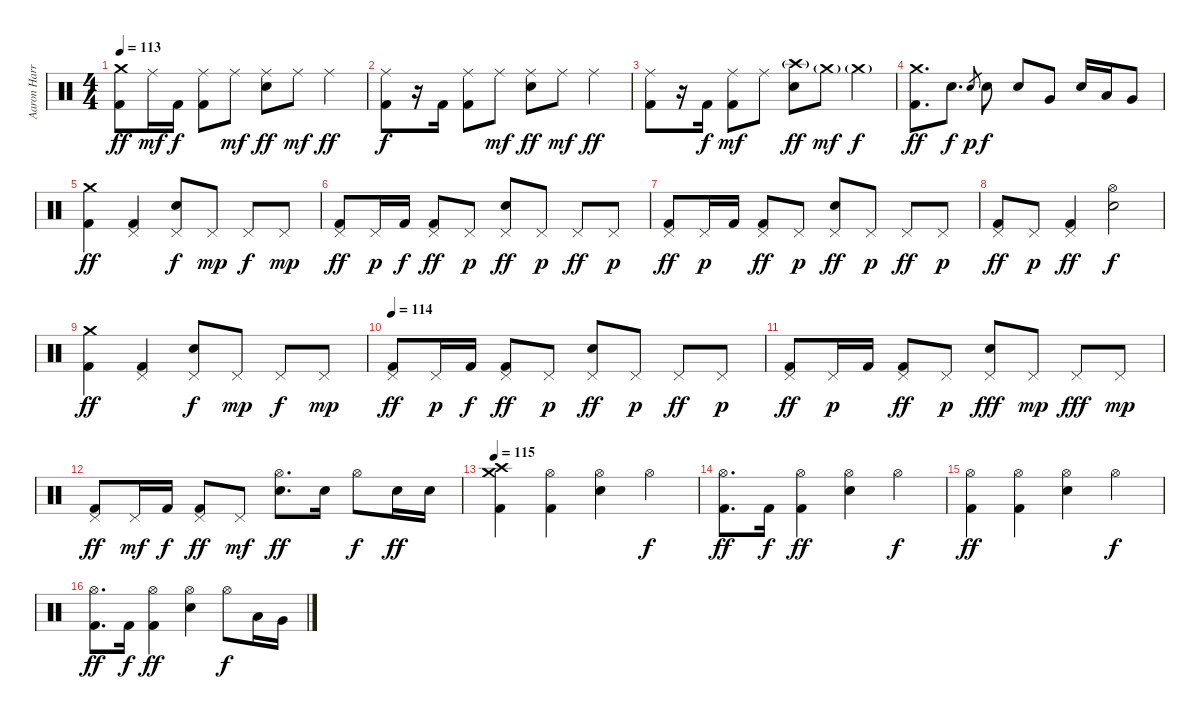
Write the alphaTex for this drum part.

\track ("Aaron Harris" "Aaron Harr") {instrument percussion}
\staff {score}
\articulation defaults
\ts (4 4)
\tempo 113
\clef neutral
\ks c
("Crash medium (hit)" "Kick (hit) 2").8{dy ff} "Ride (middle)".16{dy mf} "Kick (hit) 2".16{dy f} ("Ride (middle)" "Kick (hit) 2").8 "Ride (middle)".8{dy mf} ("Ride (middle)" "Electric Snare (hit)").8{dy ff} "Ride (middle)".8{dy mf} "Ride (middle)".4{dy ff} |
("Ride (middle)" "Kick (hit) 2").8{dy f} r.16 "Kick (hit) 2".16 ("Ride (middle)" "Kick (hit) 2").8 "Ride (middle)".8{dy mf} ("Ride (middle)" "Electric Snare (hit)").8{dy ff} "Ride (middle)".8{dy mf} "Ride (middle)".4{dy ff} |
("Ride (middle)" "Kick (hit) 2").8 r.16 "Kick (hit) 2".16{dy f} ("Ride (middle)" "Kick (hit) 2").8{dy mf} "Ride (middle)".8 ("Crash high (hit)"{g} "Electric Snare (hit)").8{dy ff} "Crash medium (hit)"{g}.8{dy mf} "Crash medium (hit)"{g}.4{dy f} |
("Crash medium (hit)" "Kick (hit) 2").8{d dy ff} "Electric Snare (hit)".8{d dy f} "Electric Snare (hit)".8{gr dy p} "Electric Snare (hit)".8{dy f} "Electric Snare (hit)".8 "Very Low Tom (hit)".8 "Electric Snare (hit)".16 "Low Tom (hit)".16 "Very Low Tom (hit)".8 |
("Crash medium (hit)" "Kick (hit) 2").4{dy ff} ("Pedal Hi-Hat (hit)" "Kick (hit) 2").4 ("Pedal Hi-Hat (hit)" "Electric Snare (hit)").8{dy f} "Pedal Hi-Hat (hit)".8{dy mp} "Pedal Hi-Hat (hit)".8{dy f} "Pedal Hi-Hat (hit)".8{dy mp} |
("Pedal Hi-Hat (hit)" "Kick (hit) 2").8{dy ff} "Pedal Hi-Hat (hit)".16{dy p} "Kick (hit) 2".16{dy f} ("Pedal Hi-Hat (hit)" "Kick (hit) 2").8{dy ff} "Pedal Hi-Hat (hit)".8{dy p} ("Pedal Hi-Hat (hit)" "Electric Snare (hit)").8{dy ff} "Pedal Hi-Hat (hit)".8{dy p} "Pedal Hi-Hat (hit)".8{dy ff} "Pedal Hi-Hat (hit)".8{dy p} |
("Pedal Hi-Hat (hit)" "Kick (hit) 2").8{dy ff} "Pedal Hi-Hat (hit)".16{dy p} "Kick (hit) 2".16 ("Pedal Hi-Hat (hit)" "Kick (hit) 2").8{dy ff} "Pedal Hi-Hat (hit)".8{dy p} ("Pedal Hi-Hat (hit)" "Electric Snare (hit)").8{dy ff} "Pedal Hi-Hat (hit)".8{dy p} "Pedal Hi-Hat (hit)".8{dy ff} "Pedal Hi-Hat (hit)".8{dy p} |
("Pedal Hi-Hat (hit)" "Kick (hit) 2").8{dy ff} "Pedal Hi-Hat (hit)".8{dy p} ("Pedal Hi-Hat (hit)" "Kick (hit) 2").4{dy ff} ("Hi-Hat (open)" "Electric Snare (hit)").2{dy f} |
("Crash medium (hit)" "Kick (hit) 2").4{dy ff} ("Pedal Hi-Hat (hit)" "Kick (hit) 2").4 ("Pedal Hi-Hat (hit)" "Electric Snare (hit)").8{dy f} "Pedal Hi-Hat (hit)".8{dy mp} "Pedal Hi-Hat (hit)".8{dy f} "Pedal Hi-Hat (hit)".8{dy mp} |
\tempo 114
("Pedal Hi-Hat (hit)" "Kick (hit) 2").8{dy ff} "Pedal Hi-Hat (hit)".16{dy p} "Kick (hit) 2".16{dy f} ("Pedal Hi-Hat (hit)" "Kick (hit) 2").8{dy ff} "Pedal Hi-Hat (hit)".8{dy p} ("Pedal Hi-Hat (hit)" "Electric Snare (hit)").8{dy ff} "Pedal Hi-Hat (hit)".8{dy p} "Pedal Hi-Hat (hit)".8{dy ff} "Pedal Hi-Hat (hit)".8{dy p} |
("Pedal Hi-Hat (hit)" "Kick (hit) 2").8{dy ff} "Pedal Hi-Hat (hit)".16{dy p} "Kick (hit) 2".16 ("Pedal Hi-Hat (hit)" "Kick (hit) 2").8{dy ff} "Pedal Hi-Hat (hit)".8{dy p} ("Pedal Hi-Hat (hit)" "Electric Snare (hit)").8{dy fff} "Pedal Hi-Hat (hit)".8{dy mp} "Pedal Hi-Hat (hit)".8{dy fff} "Pedal Hi-Hat (hit)".8{dy mp} |
("Pedal Hi-Hat (hit)" "Kick (hit) 2").8{dy ff} "Pedal Hi-Hat (hit)".16{dy mf} "Kick (hit) 2".16{dy f} ("Pedal Hi-Hat (hit)" "Kick (hit) 2").8{dy ff} "Pedal Hi-Hat (hit)".8{dy mf} ("Hi-Hat (open)" "Electric Snare (hit)").8{d dy ff} "Electric Snare (hit)".16 "Hi-Hat (open)".8{dy f} "Electric Snare (hit)".16{dy ff} "Electric Snare (hit)".16 |
\tempo 115
("Crash medium (hit)" "Crash high (hit)" "Kick (hit) 2").4 ("Hi-Hat (open)" "Kick (hit) 2").4 ("Hi-Hat (open)" "Electric Snare (hit)").4 "Hi-Hat (open)".4{dy f} |
("Hi-Hat (open)" "Kick (hit) 2").8{d dy ff} "Kick (hit) 2".16{dy f} ("Hi-Hat (open)" "Kick (hit) 2").4{dy ff} ("Hi-Hat (open)" "Electric Snare (hit)").4 "Hi-Hat (open)".4{dy f} |
("Hi-Hat (open)" "Kick (hit) 2").4{dy ff} ("Hi-Hat (open)" "Kick (hit) 2").4 ("Hi-Hat (open)" "Electric Snare (hit)").4 "Hi-Hat (open)".4{dy f} |
("Hi-Hat (open)" "Kick (hit) 2").8{d dy ff} "Kick (hit) 2".16{dy f} ("Hi-Hat (open)" "Kick (hit) 2").4{dy ff} ("Hi-Hat (open)" "Electric Snare (hit)").4 "Hi-Hat (open)".8{dy f} "Low Tom (hit)".16 "Very Low Tom (hit)".16
